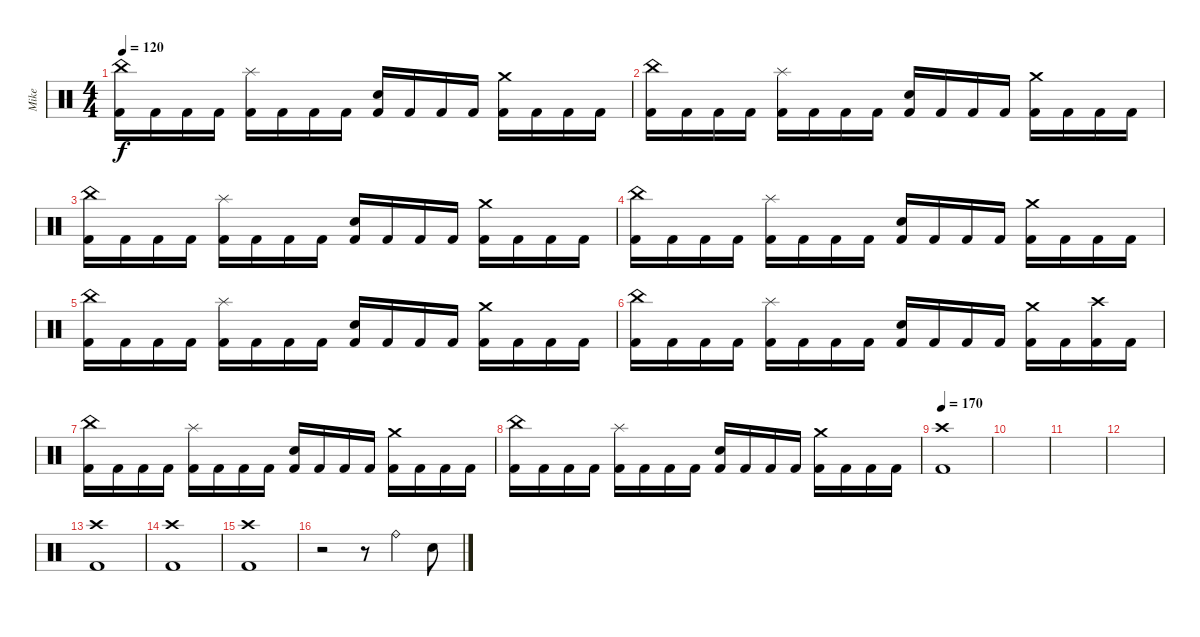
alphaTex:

\track ("Mike" "Mike") {instrument percussion}
\staff {score}
\articulation defaults
\ts (4 4)
\tempo 120
\clef neutral
\ks c
("Kick (hit) 2" "China (hit)").16{dy f} "Kick (hit) 2".16 "Kick (hit) 2".16 "Kick (hit) 2".16 ("Kick (hit) 2" "Splash (hit)").16 "Kick (hit) 2".16 "Kick (hit) 2".16 "Kick (hit) 2".16 ("Kick (hit) 2" "Electric Snare (hit)").16 "Kick (hit) 2".16 "Kick (hit) 2".16 "Kick (hit) 2".16 ("Kick (hit) 2" "Crash medium (hit)").16 "Kick (hit) 2".16 "Kick (hit) 2".16 "Kick (hit) 2".16 |
("Kick (hit) 2" "China (hit)").16 "Kick (hit) 2".16 "Kick (hit) 2".16 "Kick (hit) 2".16 ("Kick (hit) 2" "Splash (hit)").16 "Kick (hit) 2".16 "Kick (hit) 2".16 "Kick (hit) 2".16 ("Kick (hit) 2" "Electric Snare (hit)").16 "Kick (hit) 2".16 "Kick (hit) 2".16 "Kick (hit) 2".16 ("Kick (hit) 2" "Crash medium (hit)").16 "Kick (hit) 2".16 "Kick (hit) 2".16 "Kick (hit) 2".16 |
("Kick (hit) 2" "China (hit)").16 "Kick (hit) 2".16 "Kick (hit) 2".16 "Kick (hit) 2".16 ("Kick (hit) 2" "Splash (hit)").16 "Kick (hit) 2".16 "Kick (hit) 2".16 "Kick (hit) 2".16 ("Kick (hit) 2" "Electric Snare (hit)").16 "Kick (hit) 2".16 "Kick (hit) 2".16 "Kick (hit) 2".16 ("Kick (hit) 2" "Crash medium (hit)").16 "Kick (hit) 2".16 "Kick (hit) 2".16 "Kick (hit) 2".16 |
("Kick (hit) 2" "China (hit)").16 "Kick (hit) 2".16 "Kick (hit) 2".16 "Kick (hit) 2".16 ("Kick (hit) 2" "Splash (hit)").16 "Kick (hit) 2".16 "Kick (hit) 2".16 "Kick (hit) 2".16 ("Kick (hit) 2" "Electric Snare (hit)").16 "Kick (hit) 2".16 "Kick (hit) 2".16 "Kick (hit) 2".16 ("Kick (hit) 2" "Crash medium (hit)").16 "Kick (hit) 2".16 "Kick (hit) 2".16 "Kick (hit) 2".16 |
("Kick (hit) 2" "China (hit)").16 "Kick (hit) 2".16 "Kick (hit) 2".16 "Kick (hit) 2".16 ("Kick (hit) 2" "Splash (hit)").16 "Kick (hit) 2".16 "Kick (hit) 2".16 "Kick (hit) 2".16 ("Kick (hit) 2" "Electric Snare (hit)").16 "Kick (hit) 2".16 "Kick (hit) 2".16 "Kick (hit) 2".16 ("Kick (hit) 2" "Crash medium (hit)").16 "Kick (hit) 2".16 "Kick (hit) 2".16 "Kick (hit) 2".16 |
("Kick (hit) 2" "China (hit)").16 "Kick (hit) 2".16 "Kick (hit) 2".16 "Kick (hit) 2".16 ("Kick (hit) 2" "Splash (hit)").16 "Kick (hit) 2".16 "Kick (hit) 2".16 "Kick (hit) 2".16 ("Kick (hit) 2" "Electric Snare (hit)").16 "Kick (hit) 2".16 "Kick (hit) 2".16 "Kick (hit) 2".16 ("Kick (hit) 2" "Crash medium (hit)").16 "Kick (hit) 2".16 ("Kick (hit) 2" "Crash high (hit)").16 "Kick (hit) 2".16 |
("Kick (hit) 2" "China (hit)").16 "Kick (hit) 2".16 "Kick (hit) 2".16 "Kick (hit) 2".16 ("Kick (hit) 2" "Splash (hit)").16 "Kick (hit) 2".16 "Kick (hit) 2".16 "Kick (hit) 2".16 ("Kick (hit) 2" "Electric Snare (hit)").16 "Kick (hit) 2".16 "Kick (hit) 2".16 "Kick (hit) 2".16 ("Kick (hit) 2" "Crash medium (hit)").16 "Kick (hit) 2".16 "Kick (hit) 2".16 "Kick (hit) 2".16 |
("Kick (hit) 2" "China (hit)").16 "Kick (hit) 2".16 "Kick (hit) 2".16 "Kick (hit) 2".16 ("Kick (hit) 2" "Splash (hit)").16 "Kick (hit) 2".16 "Kick (hit) 2".16 "Kick (hit) 2".16 ("Kick (hit) 2" "Electric Snare (hit)").16 "Kick (hit) 2".16 "Kick (hit) 2".16 "Kick (hit) 2".16 ("Kick (hit) 2" "Crash medium (hit)").16 "Kick (hit) 2".16 "Kick (hit) 2".16 "Kick (hit) 2".16 |
\tempo 170
("Kick (hit) 2" "Crash high (hit)").1 |
|
|
|
("Kick (hit) 2" "Crash high (hit)").1 |
("Kick (hit) 2" "Crash high (hit)").1 |
("Kick (hit) 2" "Crash high (hit)").1 |
r.2 r.8 "Ride (bell)".4 "Electric Snare (hit)".8
